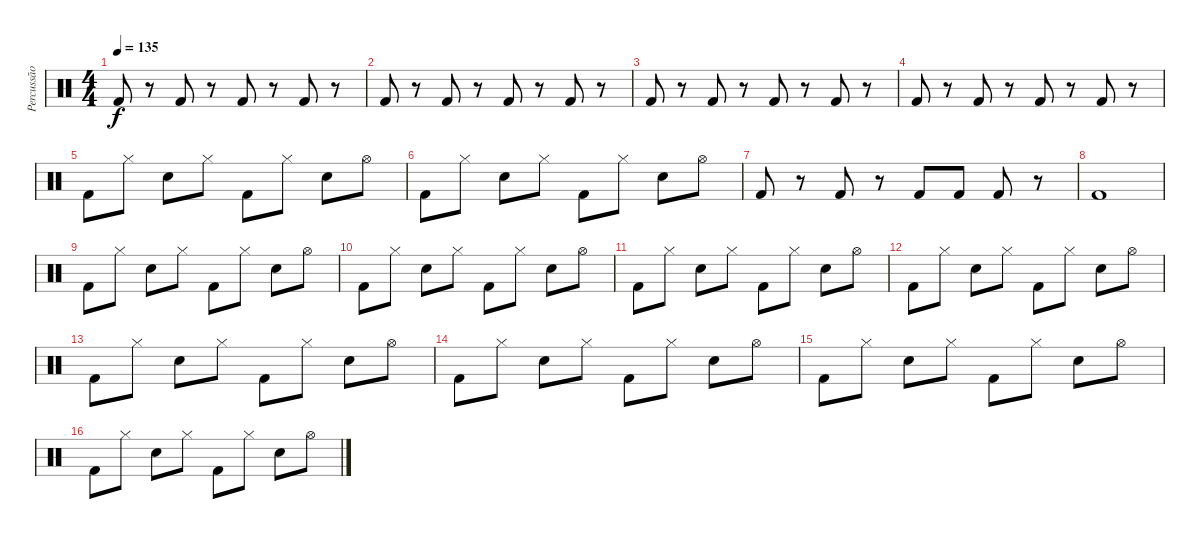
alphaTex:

\track ("Percussão" "Percussão") {instrument percussion}
\staff {score}
\articulation defaults
\ts (4 4)
\tempo 135
\clef neutral
\ks c "Kick (hit) 2".8{dy f}
r.8 "Kick (hit) 2".8 r.8 "Kick (hit) 2".8 r.8 "Kick (hit) 2".8 r.8 |
"Kick (hit) 2".8 r.8 "Kick (hit) 2".8 r.8 "Kick (hit) 2".8 r.8 "Kick (hit) 2".8 r.8 |
"Kick (hit) 2".8 r.8 "Kick (hit) 2".8 r.8 "Kick (hit) 2".8 r.8 "Kick (hit) 2".8 r.8 |
"Kick (hit) 2".8 r.8 "Kick (hit) 2".8 r.8 "Kick (hit) 2".8 r.8 "Kick (hit) 2".8 r.8 |
"Kick (hit) 2".8 "Hi-Hat (closed)".8 "Electric Snare (hit)".8 "Hi-Hat (closed)".8 "Kick (hit) 2".8 "Hi-Hat (closed)".8 "Electric Snare (hit)".8 "Hi-Hat (open)".8 |
"Kick (hit) 2".8 "Hi-Hat (closed)".8 "Electric Snare (hit)".8 "Hi-Hat (closed)".8 "Kick (hit) 2".8 "Hi-Hat (closed)".8 "Electric Snare (hit)".8 "Hi-Hat (open)".8 |
"Kick (hit) 2".8 r.8 "Kick (hit) 2".8 r.8 "Kick (hit) 2".8 "Kick (hit) 2".8 "Kick (hit) 2".8 r.8 |
"Kick (hit) 2".1 |
"Kick (hit) 2".8 "Hi-Hat (closed)".8 "Electric Snare (hit)".8 "Hi-Hat (closed)".8 "Kick (hit) 2".8 "Hi-Hat (closed)".8 "Electric Snare (hit)".8 "Hi-Hat (open)".8 |
"Kick (hit) 2".8 "Hi-Hat (closed)".8 "Electric Snare (hit)".8 "Hi-Hat (closed)".8 "Kick (hit) 2".8 "Hi-Hat (closed)".8 "Electric Snare (hit)".8 "Hi-Hat (open)".8 |
"Kick (hit) 2".8 "Hi-Hat (closed)".8 "Electric Snare (hit)".8 "Hi-Hat (closed)".8 "Kick (hit) 2".8 "Hi-Hat (closed)".8 "Electric Snare (hit)".8 "Hi-Hat (open)".8 |
"Kick (hit) 2".8 "Hi-Hat (closed)".8 "Electric Snare (hit)".8 "Hi-Hat (closed)".8 "Kick (hit) 2".8 "Hi-Hat (closed)".8 "Electric Snare (hit)".8 "Hi-Hat (open)".8 |
"Kick (hit) 2".8 "Hi-Hat (closed)".8 "Electric Snare (hit)".8 "Hi-Hat (closed)".8 "Kick (hit) 2".8 "Hi-Hat (closed)".8 "Electric Snare (hit)".8 "Hi-Hat (open)".8 |
"Kick (hit) 2".8 "Hi-Hat (closed)".8 "Electric Snare (hit)".8 "Hi-Hat (closed)".8 "Kick (hit) 2".8 "Hi-Hat (closed)".8 "Electric Snare (hit)".8 "Hi-Hat (open)".8 |
"Kick (hit) 2".8 "Hi-Hat (closed)".8 "Electric Snare (hit)".8 "Hi-Hat (closed)".8 "Kick (hit) 2".8 "Hi-Hat (closed)".8 "Electric Snare (hit)".8 "Hi-Hat (open)".8 |
"Kick (hit) 2".8 "Hi-Hat (closed)".8 "Electric Snare (hit)".8 "Hi-Hat (closed)".8 "Kick (hit) 2".8 "Hi-Hat (closed)".8 "Electric Snare (hit)".8 "Hi-Hat (open)".8
